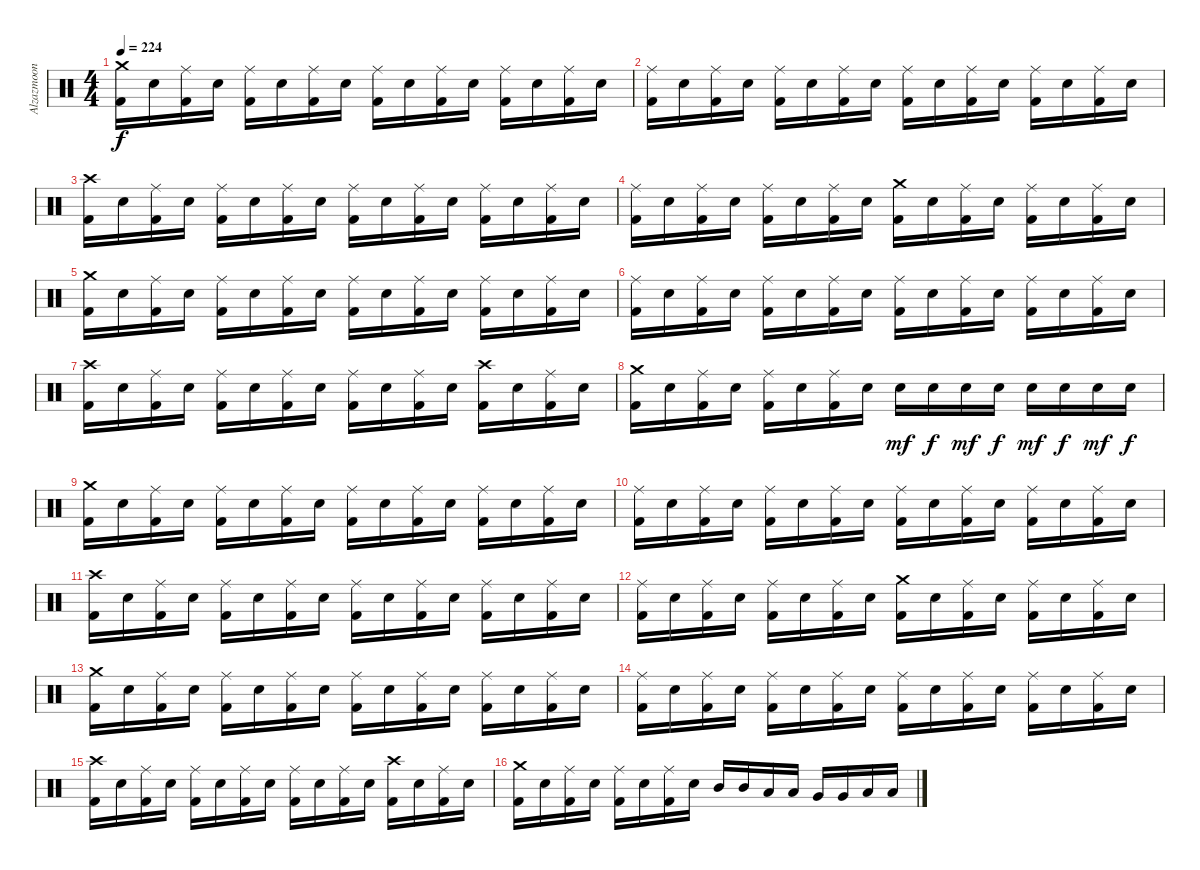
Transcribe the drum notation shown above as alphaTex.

\track ("Alzazmoon" "Alzazmoon") {instrument percussion}
\staff {score}
\articulation defaults
\ts (4 4)
\tempo 224
\clef neutral
\ks c
("Crash medium (hit)" "Kick (hit) 2").16{dy f} "Snare (hit) 2".16 ("Ride (middle)" "Kick (hit) 2").16 "Snare (hit) 2".16 ("Ride (middle)" "Kick (hit) 2").16 "Snare (hit) 2".16 ("Ride (middle)" "Kick (hit) 2").16 "Snare (hit) 2".16 ("Ride (middle)" "Kick (hit) 2").16 "Snare (hit) 2".16 ("Ride (middle)" "Kick (hit) 2").16 "Snare (hit) 2".16 ("Ride (middle)" "Kick (hit) 2").16 "Snare (hit) 2".16 ("Ride (middle)" "Kick (hit) 2").16 "Snare (hit) 2".16 |
("Ride (middle)" "Kick (hit) 2").16 "Snare (hit) 2".16 ("Ride (middle)" "Kick (hit) 2").16 "Snare (hit) 2".16 ("Ride (middle)" "Kick (hit) 2").16 "Snare (hit) 2".16 ("Ride (middle)" "Kick (hit) 2").16 "Snare (hit) 2".16 ("Ride (middle)" "Kick (hit) 2").16 "Snare (hit) 2".16 ("Ride (middle)" "Kick (hit) 2").16 "Snare (hit) 2".16 ("Ride (middle)" "Kick (hit) 2").16 "Snare (hit) 2".16 ("Ride (middle)" "Kick (hit) 2").16 "Snare (hit) 2".16 |
("Crash high (hit)" "Kick (hit) 2").16 "Snare (hit) 2".16 ("Ride (middle)" "Kick (hit) 2").16 "Snare (hit) 2".16 ("Ride (middle)" "Kick (hit) 2").16 "Snare (hit) 2".16 ("Ride (middle)" "Kick (hit) 2").16 "Snare (hit) 2".16 ("Ride (middle)" "Kick (hit) 2").16 "Snare (hit) 2".16 ("Ride (middle)" "Kick (hit) 2").16 "Snare (hit) 2".16 ("Ride (middle)" "Kick (hit) 2").16 "Snare (hit) 2".16 ("Ride (middle)" "Kick (hit) 2").16 "Snare (hit) 2".16 |
("Ride (middle)" "Kick (hit) 2").16 "Snare (hit) 2".16 ("Ride (middle)" "Kick (hit) 2").16 "Snare (hit) 2".16 ("Ride (middle)" "Kick (hit) 2").16 "Snare (hit) 2".16 ("Ride (middle)" "Kick (hit) 2").16 "Snare (hit) 2".16 ("Crash medium (hit)" "Kick (hit) 2").16 "Snare (hit) 2".16 ("Ride (middle)" "Kick (hit) 2").16 "Snare (hit) 2".16 ("Ride (middle)" "Kick (hit) 2").16 "Snare (hit) 2".16 ("Ride (middle)" "Kick (hit) 2").16 "Snare (hit) 2".16 |
("Crash medium (hit)" "Kick (hit) 2").16 "Snare (hit) 2".16 ("Ride (middle)" "Kick (hit) 2").16 "Snare (hit) 2".16 ("Ride (middle)" "Kick (hit) 2").16 "Snare (hit) 2".16 ("Ride (middle)" "Kick (hit) 2").16 "Snare (hit) 2".16 ("Ride (middle)" "Kick (hit) 2").16 "Snare (hit) 2".16 ("Ride (middle)" "Kick (hit) 2").16 "Snare (hit) 2".16 ("Ride (middle)" "Kick (hit) 2").16 "Snare (hit) 2".16 ("Ride (middle)" "Kick (hit) 2").16 "Snare (hit) 2".16 |
("Ride (middle)" "Kick (hit) 2").16 "Snare (hit) 2".16 ("Ride (middle)" "Kick (hit) 2").16 "Snare (hit) 2".16 ("Ride (middle)" "Kick (hit) 2").16 "Snare (hit) 2".16 ("Ride (middle)" "Kick (hit) 2").16 "Snare (hit) 2".16 ("Ride (middle)" "Kick (hit) 2").16 "Snare (hit) 2".16 ("Ride (middle)" "Kick (hit) 2").16 "Snare (hit) 2".16 ("Ride (middle)" "Kick (hit) 2").16 "Snare (hit) 2".16 ("Ride (middle)" "Kick (hit) 2").16 "Snare (hit) 2".16 |
("Crash high (hit)" "Kick (hit) 2").16 "Snare (hit) 2".16 ("Ride (middle)" "Kick (hit) 2").16 "Snare (hit) 2".16 ("Ride (middle)" "Kick (hit) 2").16 "Snare (hit) 2".16 ("Ride (middle)" "Kick (hit) 2").16 "Snare (hit) 2".16 ("Ride (middle)" "Kick (hit) 2").16 "Snare (hit) 2".16 ("Ride (middle)" "Kick (hit) 2").16 "Snare (hit) 2".16 ("Crash high (hit)" "Kick (hit) 2").16 "Snare (hit) 2".16 ("Ride (middle)" "Kick (hit) 2").16 "Snare (hit) 2".16 |
("Crash medium (hit)" "Kick (hit) 2").16 "Snare (hit) 2".16 ("Ride (middle)" "Kick (hit) 2").16 "Snare (hit) 2".16 ("Ride (middle)" "Kick (hit) 2").16 "Snare (hit) 2".16 ("Ride (middle)" "Kick (hit) 2").16 "Snare (hit) 2".16 "Snare (hit) 2".16{dy mf} "Snare (hit) 2".16{dy f} "Snare (hit) 2".16{dy mf} "Snare (hit) 2".16{dy f} "Snare (hit) 2".16{dy mf} "Snare (hit) 2".16{dy f} "Snare (hit) 2".16{dy mf} "Snare (hit) 2".16{dy f} |
("Crash medium (hit)" "Kick (hit) 2").16 "Snare (hit) 2".16 ("Ride (middle)" "Kick (hit) 2").16 "Snare (hit) 2".16 ("Ride (middle)" "Kick (hit) 2").16 "Snare (hit) 2".16 ("Ride (middle)" "Kick (hit) 2").16 "Snare (hit) 2".16 ("Ride (middle)" "Kick (hit) 2").16 "Snare (hit) 2".16 ("Ride (middle)" "Kick (hit) 2").16 "Snare (hit) 2".16 ("Ride (middle)" "Kick (hit) 2").16 "Snare (hit) 2".16 ("Ride (middle)" "Kick (hit) 2").16 "Snare (hit) 2".16 |
("Ride (middle)" "Kick (hit) 2").16 "Snare (hit) 2".16 ("Ride (middle)" "Kick (hit) 2").16 "Snare (hit) 2".16 ("Ride (middle)" "Kick (hit) 2").16 "Snare (hit) 2".16 ("Ride (middle)" "Kick (hit) 2").16 "Snare (hit) 2".16 ("Ride (middle)" "Kick (hit) 2").16 "Snare (hit) 2".16 ("Ride (middle)" "Kick (hit) 2").16 "Snare (hit) 2".16 ("Ride (middle)" "Kick (hit) 2").16 "Snare (hit) 2".16 ("Ride (middle)" "Kick (hit) 2").16 "Snare (hit) 2".16 |
("Crash high (hit)" "Kick (hit) 2").16 "Snare (hit) 2".16 ("Ride (middle)" "Kick (hit) 2").16 "Snare (hit) 2".16 ("Ride (middle)" "Kick (hit) 2").16 "Snare (hit) 2".16 ("Ride (middle)" "Kick (hit) 2").16 "Snare (hit) 2".16 ("Ride (middle)" "Kick (hit) 2").16 "Snare (hit) 2".16 ("Ride (middle)" "Kick (hit) 2").16 "Snare (hit) 2".16 ("Ride (middle)" "Kick (hit) 2").16 "Snare (hit) 2".16 ("Ride (middle)" "Kick (hit) 2").16 "Snare (hit) 2".16 |
("Ride (middle)" "Kick (hit) 2").16 "Snare (hit) 2".16 ("Ride (middle)" "Kick (hit) 2").16 "Snare (hit) 2".16 ("Ride (middle)" "Kick (hit) 2").16 "Snare (hit) 2".16 ("Ride (middle)" "Kick (hit) 2").16 "Snare (hit) 2".16 ("Crash medium (hit)" "Kick (hit) 2").16 "Snare (hit) 2".16 ("Ride (middle)" "Kick (hit) 2").16 "Snare (hit) 2".16 ("Ride (middle)" "Kick (hit) 2").16 "Snare (hit) 2".16 ("Ride (middle)" "Kick (hit) 2").16 "Snare (hit) 2".16 |
("Crash medium (hit)" "Kick (hit) 2").16 "Snare (hit) 2".16 ("Ride (middle)" "Kick (hit) 2").16 "Snare (hit) 2".16 ("Ride (middle)" "Kick (hit) 2").16 "Snare (hit) 2".16 ("Ride (middle)" "Kick (hit) 2").16 "Snare (hit) 2".16 ("Ride (middle)" "Kick (hit) 2").16 "Snare (hit) 2".16 ("Ride (middle)" "Kick (hit) 2").16 "Snare (hit) 2".16 ("Ride (middle)" "Kick (hit) 2").16 "Snare (hit) 2".16 ("Ride (middle)" "Kick (hit) 2").16 "Snare (hit) 2".16 |
("Ride (middle)" "Kick (hit) 2").16 "Snare (hit) 2".16 ("Ride (middle)" "Kick (hit) 2").16 "Snare (hit) 2".16 ("Ride (middle)" "Kick (hit) 2").16 "Snare (hit) 2".16 ("Ride (middle)" "Kick (hit) 2").16 "Snare (hit) 2".16 ("Ride (middle)" "Kick (hit) 2").16 "Snare (hit) 2".16 ("Ride (middle)" "Kick (hit) 2").16 "Snare (hit) 2".16 ("Ride (middle)" "Kick (hit) 2").16 "Snare (hit) 2".16 ("Ride (middle)" "Kick (hit) 2").16 "Snare (hit) 2".16 |
("Crash high (hit)" "Kick (hit) 2").16 "Snare (hit) 2".16 ("Ride (middle)" "Kick (hit) 2").16 "Snare (hit) 2".16 ("Ride (middle)" "Kick (hit) 2").16 "Snare (hit) 2".16 ("Ride (middle)" "Kick (hit) 2").16 "Snare (hit) 2".16 ("Ride (middle)" "Kick (hit) 2").16 "Snare (hit) 2".16 ("Ride (middle)" "Kick (hit) 2").16 "Snare (hit) 2".16 ("Crash high (hit)" "Kick (hit) 2").16 "Snare (hit) 2".16 ("Ride (middle)" "Kick (hit) 2").16 "Snare (hit) 2".16 |
("Crash medium (hit)" "Kick (hit) 2").16 "Snare (hit) 2".16 ("Ride (middle)" "Kick (hit) 2").16 "Snare (hit) 2".16 ("Ride (middle)" "Kick (hit) 2").16 "Snare (hit) 2".16 ("Ride (middle)" "Kick (hit) 2").16 "Snare (hit) 2".16 "Mid Tom (hit)".16 "Mid Tom (hit)".16 "Low Tom (hit)".16 "Low Tom (hit)".16 "Very Low Tom (hit)".16 "Very Low Tom (hit)".16 "Low Floor Tom (hit)".16 "Low Floor Tom (hit)".16
